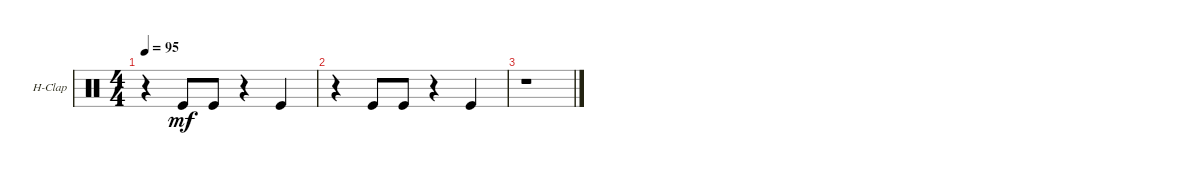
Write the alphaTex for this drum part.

\defaultSystemsLayout 4
\bracketExtendMode groupsimilarinstruments
\firstSystemTrackNameOrientation horizontal
\otherSystemsTrackNameOrientation horizontal
\track ("Hand Clap" "H-Clap") {instrument percussion}
\staff {score}
\articulation defaults
\ts (4 4)
\tempo 95
\clef neutral
\scale
0.5
\ks c
r.4{dy mf} "Kick (hit)".8 "Kick (hit)".8 r.4 "Kick (hit)".4 |
\scale
0.5 r.4 "Kick (hit)".8 "Kick (hit)".8 r.4 "Kick (hit)".4 |
\scale
0.5 r.1
